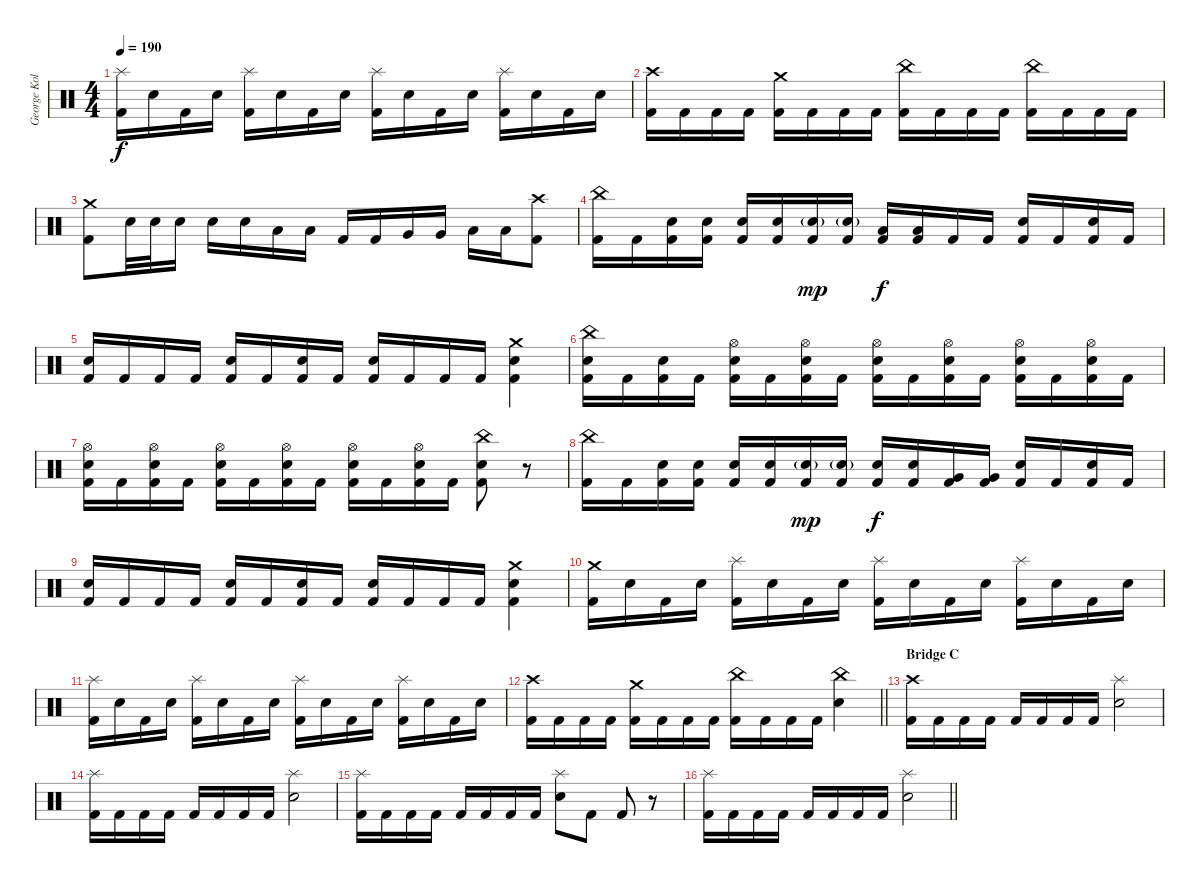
\track ("George Kollias" "George Kol") {instrument percussion}
\staff {score}
\articulation defaults
\ts (4 4)
\tempo 190
\clef neutral
\ks c
("Splash (hit)" "Kick (hit) 2").16{dy f} "Electric Snare (hit)".16 "Kick (hit) 2".16 "Electric Snare (hit)".16 ("Splash (hit)" "Kick (hit) 2").16 "Electric Snare (hit)".16 "Kick (hit) 2".16 "Electric Snare (hit)".16 ("Splash (hit)" "Kick (hit) 2").16 "Electric Snare (hit)".16 "Kick (hit) 2".16 "Electric Snare (hit)".16 ("Splash (hit)" "Kick (hit) 2").16 "Electric Snare (hit)".16 "Kick (hit) 2".16 "Electric Snare (hit)".16 |
("Crash high (hit)" "Kick (hit) 2").16 "Kick (hit) 2".16 "Kick (hit) 2".16 "Kick (hit) 2".16 ("Crash medium (hit)" "Kick (hit) 2").16 "Kick (hit) 2".16 "Kick (hit) 2".16 "Kick (hit) 2".16 ("China (hit)" "Kick (hit) 2").16 "Kick (hit) 2".16 "Kick (hit) 2".16 "Kick (hit) 2".16 ("China (hit)" "Kick (hit) 2").16 "Kick (hit) 2".16 "Kick (hit) 2".16 "Kick (hit) 2".16 |
("Crash medium (hit)" "Kick (hit) 2").8 "Electric Snare (hit)".32 "Electric Snare (hit)".32 "Electric Snare (hit)".16 "Electric Snare (hit)".16 "Electric Snare (hit)".16 "Low Tom (hit)".16 "Low Tom (hit)".16 "Kick (hit) 2".16 "Kick (hit) 2".16 "Very Low Tom (hit)".16 "Very Low Tom (hit)".16 "Low Floor Tom (hit)".16 "Low Floor Tom (hit)".16 ("Crash high (hit)" "Kick (hit) 2").8 |
("China (hit)" "Kick (hit) 2").16 "Kick (hit) 2".16 ("Electric Snare (hit)" "Kick (hit) 2").16 ("Electric Snare (hit)" "Kick (hit) 2").16 ("Electric Snare (hit)" "Kick (hit) 2").16 ("Electric Snare (hit)" "Kick (hit) 2").16 ("Electric Snare (hit)"{g} "Kick (hit) 2").16{dy mp} ("Electric Snare (hit)"{g} "Kick (hit) 2").16 ("Low Tom (hit)" "Kick (hit) 2").16{dy f} ("Low Tom (hit)" "Kick (hit) 2").16 "Kick (hit) 2".16 "Kick (hit) 2".16 ("Electric Snare (hit)" "Kick (hit) 2").16 "Kick (hit) 2".16 ("Electric Snare (hit)" "Kick (hit) 2").16 "Kick (hit) 2".16 |
("Electric Snare (hit)" "Kick (hit) 2").16 "Kick (hit) 2".16 "Kick (hit) 2".16 "Kick (hit) 2".16 ("Electric Snare (hit)" "Kick (hit) 2").16 "Kick (hit) 2".16 ("Electric Snare (hit)" "Kick (hit) 2").16 "Kick (hit) 2".16 ("Electric Snare (hit)" "Kick (hit) 2").16 "Kick (hit) 2".16 "Kick (hit) 2".16 "Kick (hit) 2".16 ("Crash medium (hit)" "Electric Snare (hit)" "Kick (hit) 2").4 |
("China (hit)" "Electric Snare (hit)" "Kick (hit) 2").16 "Kick (hit) 2".16 ("Electric Snare (hit)" "Kick (hit) 2").16 "Kick (hit) 2".16 ("Hi-Hat (open)" "Electric Snare (hit)" "Kick (hit) 2").16 "Kick (hit) 2".16 ("Hi-Hat (open)" "Electric Snare (hit)" "Kick (hit) 2").16 "Kick (hit) 2".16 ("Hi-Hat (open)" "Electric Snare (hit)" "Kick (hit) 2").16 "Kick (hit) 2".16 ("Hi-Hat (open)" "Electric Snare (hit)" "Kick (hit) 2").16 "Kick (hit) 2".16 ("Hi-Hat (open)" "Electric Snare (hit)" "Kick (hit) 2").16 "Kick (hit) 2".16 ("Hi-Hat (open)" "Electric Snare (hit)" "Kick (hit) 2").16 "Kick (hit) 2".16 |
("Hi-Hat (open)" "Electric Snare (hit)" "Kick (hit) 2").16 "Kick (hit) 2".16 ("Hi-Hat (open)" "Electric Snare (hit)" "Kick (hit) 2").16 "Kick (hit) 2".16 ("Hi-Hat (open)" "Electric Snare (hit)" "Kick (hit) 2").16 "Kick (hit) 2".16 ("Hi-Hat (open)" "Electric Snare (hit)" "Kick (hit) 2").16 "Kick (hit) 2".16 ("Hi-Hat (open)" "Electric Snare (hit)" "Kick (hit) 2").16 "Kick (hit) 2".16 ("Hi-Hat (open)" "Electric Snare (hit)" "Kick (hit) 2").16 "Kick (hit) 2".16 ("China (hit)" "Electric Snare (hit)" "Kick (hit) 2").8 r.8 |
("China (hit)" "Kick (hit) 2").16 "Kick (hit) 2".16 ("Electric Snare (hit)" "Kick (hit) 2").16 ("Electric Snare (hit)" "Kick (hit) 2").16 ("Electric Snare (hit)" "Kick (hit) 2").16 ("Electric Snare (hit)" "Kick (hit) 2").16 ("Electric Snare (hit)"{g} "Kick (hit) 2").16{dy mp} ("Electric Snare (hit)"{g} "Kick (hit) 2").16 ("Electric Snare (hit)" "Kick (hit) 2").16{dy f} ("Electric Snare (hit)" "Kick (hit) 2").16 ("Very Low Tom (hit)" "Kick (hit) 2").16 ("Very Low Tom (hit)" "Kick (hit) 2").16 ("Electric Snare (hit)" "Kick (hit) 2").16 "Kick (hit) 2".16 ("Electric Snare (hit)" "Kick (hit) 2").16 "Kick (hit) 2".16 |
("Electric Snare (hit)" "Kick (hit) 2").16 "Kick (hit) 2".16 "Kick (hit) 2".16 "Kick (hit) 2".16 ("Electric Snare (hit)" "Kick (hit) 2").16 "Kick (hit) 2".16 ("Electric Snare (hit)" "Kick (hit) 2").16 "Kick (hit) 2".16 ("Electric Snare (hit)" "Kick (hit) 2").16 "Kick (hit) 2".16 "Kick (hit) 2".16 "Kick (hit) 2".16 ("Crash medium (hit)" "Electric Snare (hit)" "Kick (hit) 2").4 |
("Crash medium (hit)" "Kick (hit) 2").16 "Electric Snare (hit)".16 "Kick (hit) 2".16 "Electric Snare (hit)".16 ("Splash (hit)" "Kick (hit) 2").16 "Electric Snare (hit)".16 "Kick (hit) 2".16 "Electric Snare (hit)".16 ("Splash (hit)" "Kick (hit) 2").16 "Electric Snare (hit)".16 "Kick (hit) 2".16 "Electric Snare (hit)".16 ("Splash (hit)" "Kick (hit) 2").16 "Electric Snare (hit)".16 "Kick (hit) 2".16 "Electric Snare (hit)".16 |
("Splash (hit)" "Kick (hit) 2").16 "Electric Snare (hit)".16 "Kick (hit) 2".16 "Electric Snare (hit)".16 ("Splash (hit)" "Kick (hit) 2").16 "Electric Snare (hit)".16 "Kick (hit) 2".16 "Electric Snare (hit)".16 ("Splash (hit)" "Kick (hit) 2").16 "Electric Snare (hit)".16 "Kick (hit) 2".16 "Electric Snare (hit)".16 ("Splash (hit)" "Kick (hit) 2").16 "Electric Snare (hit)".16 "Kick (hit) 2".16 "Electric Snare (hit)".16 |
\barLineRight lightlight
("Crash high (hit)" "Kick (hit) 2").16 "Kick (hit) 2".16 "Kick (hit) 2".16 "Kick (hit) 2".16 ("Crash medium (hit)" "Kick (hit) 2").16 "Kick (hit) 2".16 "Kick (hit) 2".16 "Kick (hit) 2".16 ("China (hit)" "Kick (hit) 2").16 "Kick (hit) 2".16 "Kick (hit) 2".16 "Kick (hit) 2".16 ("China (hit)" "Electric Snare (hit)").4 |
\section ("" "Bridge C")
("Crash high (hit)" "Kick (hit) 2").16 "Kick (hit) 2".16 "Kick (hit) 2".16 "Kick (hit) 2".16 "Kick (hit) 2".16 "Kick (hit) 2".16 "Kick (hit) 2".16 "Kick (hit) 2".16 ("Splash (hit)" "Electric Snare (hit)").2 |
("Splash (hit)" "Kick (hit) 2").16 "Kick (hit) 2".16 "Kick (hit) 2".16 "Kick (hit) 2".16 "Kick (hit) 2".16 "Kick (hit) 2".16 "Kick (hit) 2".16 "Kick (hit) 2".16 ("Splash (hit)" "Electric Snare (hit)").2 |
("Splash (hit)" "Kick (hit) 2").16 "Kick (hit) 2".16 "Kick (hit) 2".16 "Kick (hit) 2".16 "Kick (hit) 2".16 "Kick (hit) 2".16 "Kick (hit) 2".16 "Kick (hit) 2".16 ("Splash (hit)" "Electric Snare (hit)").8 "Kick (hit) 2".8 "Kick (hit) 2".8 r.8 |
\barLineRight lightlight
("Splash (hit)" "Kick (hit) 2").16 "Kick (hit) 2".16 "Kick (hit) 2".16 "Kick (hit) 2".16 "Kick (hit) 2".16 "Kick (hit) 2".16 "Kick (hit) 2".16 "Kick (hit) 2".16 ("Splash (hit)" "Electric Snare (hit)").2
